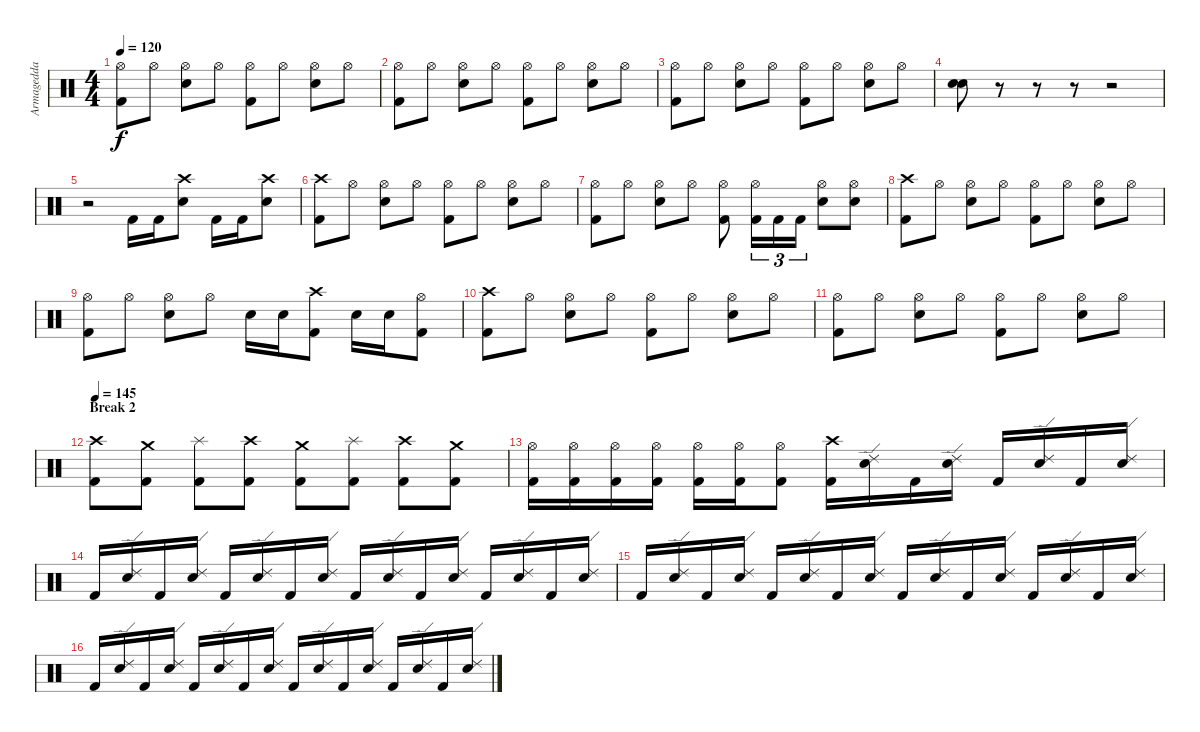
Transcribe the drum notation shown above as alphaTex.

\track ("Armagedda" "Armagedda") {instrument percussion}
\staff {score}
\articulation defaults
\ts (4 4)
\tempo 120
\clef neutral
\ks c
("Hi-Hat (open)" "Kick (hit) 2").8{dy f} "Hi-Hat (open)".8 ("Hi-Hat (open)" "Electric Snare (hit)").8 "Hi-Hat (open)".8 ("Hi-Hat (open)" "Kick (hit) 2").8 "Hi-Hat (open)".8 ("Hi-Hat (open)" "Electric Snare (hit)").8 "Hi-Hat (open)".8 |
("Hi-Hat (open)" "Kick (hit) 2").8 "Hi-Hat (open)".8 ("Hi-Hat (open)" "Electric Snare (hit)").8 "Hi-Hat (open)".8 ("Hi-Hat (open)" "Kick (hit) 2").8 "Hi-Hat (open)".8 ("Hi-Hat (open)" "Electric Snare (hit)").8 "Hi-Hat (open)".8 |
("Hi-Hat (open)" "Kick (hit) 2").8 "Hi-Hat (open)".8 ("Hi-Hat (open)" "Electric Snare (hit)").8 "Hi-Hat (open)".8 ("Hi-Hat (open)" "Kick (hit) 2").8 "Hi-Hat (open)".8 ("Hi-Hat (open)" "Electric Snare (hit)").8 "Hi-Hat (open)".8 |
("Electric Snare (hit)" "Electric Snare (hit)").8 r.8 r.8 r.8 r.2 |
r.2 "Kick (hit) 2".16 "Kick (hit) 2".16 ("Crash high (hit)" "Electric Snare (hit)").8 "Kick (hit) 2".16 "Kick (hit) 2".16 ("Crash high (hit)" "Electric Snare (hit)").8 |
("Crash high (hit)" "Kick (hit) 2").8 "Hi-Hat (open)".8 ("Hi-Hat (open)" "Electric Snare (hit)").8 "Hi-Hat (open)".8 ("Hi-Hat (open)" "Kick (hit) 2").8 "Hi-Hat (open)".8 ("Hi-Hat (open)" "Electric Snare (hit)").8 "Hi-Hat (open)".8 |
("Hi-Hat (open)" "Kick (hit) 2").8 "Hi-Hat (open)".8 ("Hi-Hat (open)" "Electric Snare (hit)").8 "Hi-Hat (open)".8 ("Hi-Hat (open)" "Kick (hit) 2").8 ("Hi-Hat (open)" "Kick (hit) 2").16{tu (3 2)} "Kick (hit) 2".16{tu (3 2)} "Kick (hit) 2".16{tu (3 2)} ("Hi-Hat (open)" "Electric Snare (hit)").8 ("Hi-Hat (open)" "Electric Snare (hit)").8 |
("Crash high (hit)" "Kick (hit) 2").8 "Hi-Hat (open)".8 ("Hi-Hat (open)" "Electric Snare (hit)").8 "Hi-Hat (open)".8 ("Hi-Hat (open)" "Kick (hit) 2").8 "Hi-Hat (open)".8 ("Hi-Hat (open)" "Electric Snare (hit)").8 "Hi-Hat (open)".8 |
("Hi-Hat (open)" "Kick (hit) 2").8 "Hi-Hat (open)".8 ("Hi-Hat (open)" "Electric Snare (hit)").8 "Hi-Hat (open)".8 "Electric Snare (hit)".16 "Electric Snare (hit)".16 ("Crash high (hit)" "Kick (hit) 2").8 "Electric Snare (hit)".16 "Electric Snare (hit)".16 ("Hi-Hat (open)" "Kick (hit) 2").8 |
("Crash high (hit)" "Kick (hit) 2").8 "Hi-Hat (open)".8 ("Hi-Hat (open)" "Electric Snare (hit)").8 "Hi-Hat (open)".8 ("Hi-Hat (open)" "Kick (hit) 2").8 "Hi-Hat (open)".8 ("Hi-Hat (open)" "Electric Snare (hit)").8 "Hi-Hat (open)".8 |
("Hi-Hat (open)" "Kick (hit) 2").8 "Hi-Hat (open)".8 ("Hi-Hat (open)" "Electric Snare (hit)").8 "Hi-Hat (open)".8 ("Hi-Hat (open)" "Kick (hit) 2").8 "Hi-Hat (open)".8 ("Hi-Hat (open)" "Electric Snare (hit)").8 "Hi-Hat (open)".8 |
\section ("" "Break 2")
\tempo 145
("Crash high (hit)" "Kick (hit) 2").8 ("Crash medium (hit)" "Kick (hit) 2").8 ("Splash (hit)" "Kick (hit) 2").8 ("Crash high (hit)" "Kick (hit) 2").8 ("Crash medium (hit)" "Kick (hit) 2").8 ("Splash (hit)" "Kick (hit) 2").8 ("Crash high (hit)" "Kick (hit) 2").8 ("Crash medium (hit)" "Kick (hit) 2").8 |
("Hi-Hat (open)" "Kick (hit) 2").16 ("Hi-Hat (open)" "Kick (hit) 2").16 ("Hi-Hat (open)" "Kick (hit) 2").16 ("Hi-Hat (open)" "Kick (hit) 2").16 ("Hi-Hat (open)" "Kick (hit) 2").16 ("Hi-Hat (open)" "Kick (hit) 2").16 ("Hi-Hat (open)" "Kick (hit) 2").8 ("Crash high (hit)" "Kick (hit) 2").16 ("Ride (edge) 2" "Electric Snare (hit)").16 "Kick (hit) 2".16 ("Ride (edge) 2" "Electric Snare (hit)").16 "Kick (hit) 2".16 ("Ride (edge) 2" "Electric Snare (hit)").16 "Kick (hit) 2".16 ("Ride (edge) 2" "Electric Snare (hit)").16 |
"Kick (hit) 2".16 ("Ride (edge) 2" "Electric Snare (hit)").16 "Kick (hit) 2".16 ("Ride (edge) 2" "Electric Snare (hit)").16 "Kick (hit) 2".16 ("Ride (edge) 2" "Electric Snare (hit)").16 "Kick (hit) 2".16 ("Ride (edge) 2" "Electric Snare (hit)").16 "Kick (hit) 2".16 ("Ride (edge) 2" "Electric Snare (hit)").16 "Kick (hit) 2".16 ("Ride (edge) 2" "Electric Snare (hit)").16 "Kick (hit) 2".16 ("Ride (edge) 2" "Electric Snare (hit)").16 "Kick (hit) 2".16 ("Ride (edge) 2" "Electric Snare (hit)").16 |
"Kick (hit) 2".16 ("Ride (edge) 2" "Electric Snare (hit)").16 "Kick (hit) 2".16 ("Ride (edge) 2" "Electric Snare (hit)").16 "Kick (hit) 2".16 ("Ride (edge) 2" "Electric Snare (hit)").16 "Kick (hit) 2".16 ("Ride (edge) 2" "Electric Snare (hit)").16 "Kick (hit) 2".16 ("Ride (edge) 2" "Electric Snare (hit)").16 "Kick (hit) 2".16 ("Ride (edge) 2" "Electric Snare (hit)").16 "Kick (hit) 2".16 ("Ride (edge) 2" "Electric Snare (hit)").16 "Kick (hit) 2".16 ("Ride (edge) 2" "Electric Snare (hit)").16 |
"Kick (hit) 2".16 ("Ride (edge) 2" "Electric Snare (hit)").16 "Kick (hit) 2".16 ("Ride (edge) 2" "Electric Snare (hit)").16 "Kick (hit) 2".16 ("Ride (edge) 2" "Electric Snare (hit)").16 "Kick (hit) 2".16 ("Ride (edge) 2" "Electric Snare (hit)").16 "Kick (hit) 2".16 ("Ride (edge) 2" "Electric Snare (hit)").16 "Kick (hit) 2".16 ("Ride (edge) 2" "Electric Snare (hit)").16 "Kick (hit) 2".16 ("Ride (edge) 2" "Electric Snare (hit)").16 "Kick (hit) 2".16 ("Ride (edge) 2" "Electric Snare (hit)").16
